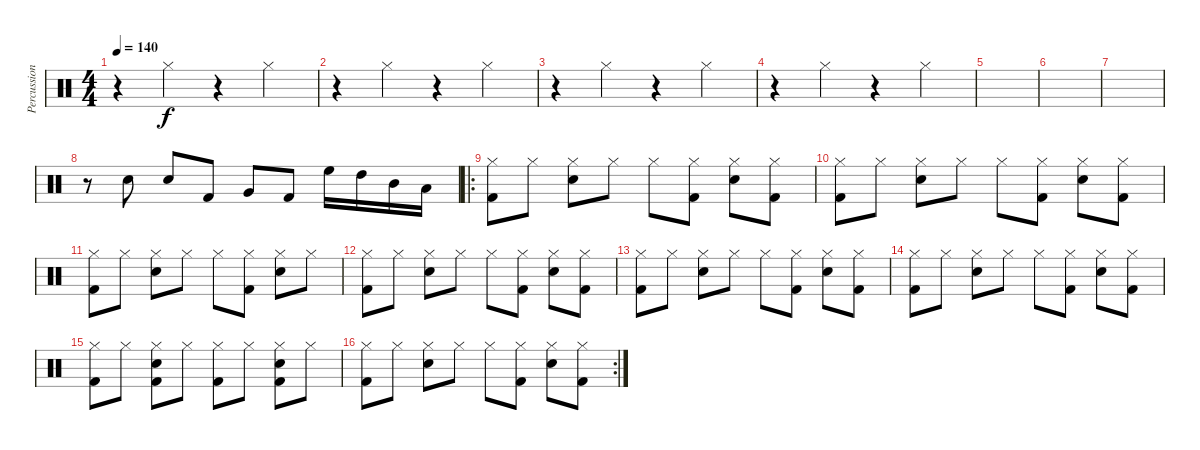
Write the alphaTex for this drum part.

\track ("Percussions" "Percussion") {instrument percussion}
\staff {score}
\articulation defaults
\ts (4 4)
\tempo 140
\clef neutral
\ks c
r.4{dy f} "Hi-Hat (closed)".4 r.4 "Hi-Hat (closed)".4 |
r.4 "Hi-Hat (closed)".4 r.4 "Hi-Hat (closed)".4 |
r.4 "Hi-Hat (closed)".4 r.4 "Hi-Hat (closed)".4 |
r.4 "Hi-Hat (closed)".4 r.4 "Hi-Hat (closed)".4 |
|
|
|
r.8 "Electric Snare (hit)".8 "Electric Snare (hit)".8 "Kick (hit) 2".8 "Very Low Tom (hit)".8 "Kick (hit) 2".8 "High Floor Tom (hit)".16 "High Tom (hit)".16 "Mid Tom (hit)".16 "Low Tom (hit)".16 |
\ro
("Hi-Hat (closed)" "Kick (hit) 2").8 "Hi-Hat (closed)".8 ("Hi-Hat (closed)" "Electric Snare (hit)").8 "Hi-Hat (closed)".8 "Hi-Hat (closed)".8 ("Hi-Hat (closed)" "Kick (hit) 2").8 ("Hi-Hat (closed)" "Electric Snare (hit)").8 ("Hi-Hat (closed)" "Kick (hit) 2").8 |
("Hi-Hat (closed)" "Kick (hit) 2").8 "Hi-Hat (closed)".8 ("Hi-Hat (closed)" "Electric Snare (hit)").8 "Hi-Hat (closed)".8 "Hi-Hat (closed)".8 ("Hi-Hat (closed)" "Kick (hit) 2").8 ("Hi-Hat (closed)" "Electric Snare (hit)").8 ("Hi-Hat (closed)" "Kick (hit) 2").8 |
("Hi-Hat (closed)" "Kick (hit) 2").8 "Hi-Hat (closed)".8 ("Hi-Hat (closed)" "Electric Snare (hit)").8 "Hi-Hat (closed)".8 "Hi-Hat (closed)".8 ("Hi-Hat (closed)" "Kick (hit) 2").8 ("Hi-Hat (closed)" "Electric Snare (hit)").8 "Hi-Hat (closed)".8 |
("Hi-Hat (closed)" "Kick (hit) 2").8 "Hi-Hat (closed)".8 ("Hi-Hat (closed)" "Electric Snare (hit)").8 "Hi-Hat (closed)".8 "Hi-Hat (closed)".8 ("Hi-Hat (closed)" "Kick (hit) 2").8 ("Hi-Hat (closed)" "Electric Snare (hit)").8 ("Hi-Hat (closed)" "Kick (hit) 2").8 |
("Hi-Hat (closed)" "Kick (hit) 2").8 "Hi-Hat (closed)".8 ("Hi-Hat (closed)" "Electric Snare (hit)").8 "Hi-Hat (closed)".8 "Hi-Hat (closed)".8 ("Hi-Hat (closed)" "Kick (hit) 2").8 ("Hi-Hat (closed)" "Electric Snare (hit)").8 ("Hi-Hat (closed)" "Kick (hit) 2").8 |
("Hi-Hat (closed)" "Kick (hit) 2").8 "Hi-Hat (closed)".8 ("Hi-Hat (closed)" "Electric Snare (hit)").8 "Hi-Hat (closed)".8 "Hi-Hat (closed)".8 ("Hi-Hat (closed)" "Kick (hit) 2").8 ("Hi-Hat (closed)" "Electric Snare (hit)").8 ("Hi-Hat (closed)" "Kick (hit) 2").8 |
("Hi-Hat (closed)" "Kick (hit) 2").8 "Hi-Hat (closed)".8 ("Hi-Hat (closed)" "Electric Snare (hit)" "Kick (hit) 2").8 "Hi-Hat (closed)".8 ("Hi-Hat (closed)" "Kick (hit) 2").8 "Hi-Hat (closed)".8 ("Hi-Hat (closed)" "Electric Snare (hit)" "Kick (hit) 2").8 "Hi-Hat (closed)".8 |
\rc 2
("Hi-Hat (closed)" "Kick (hit) 2").8 "Hi-Hat (closed)".8 ("Hi-Hat (closed)" "Electric Snare (hit)").8 "Hi-Hat (closed)".8 "Hi-Hat (closed)".8 ("Hi-Hat (closed)" "Kick (hit) 2").8 ("Hi-Hat (closed)" "Electric Snare (hit)").8 ("Hi-Hat (closed)" "Kick (hit) 2").8
